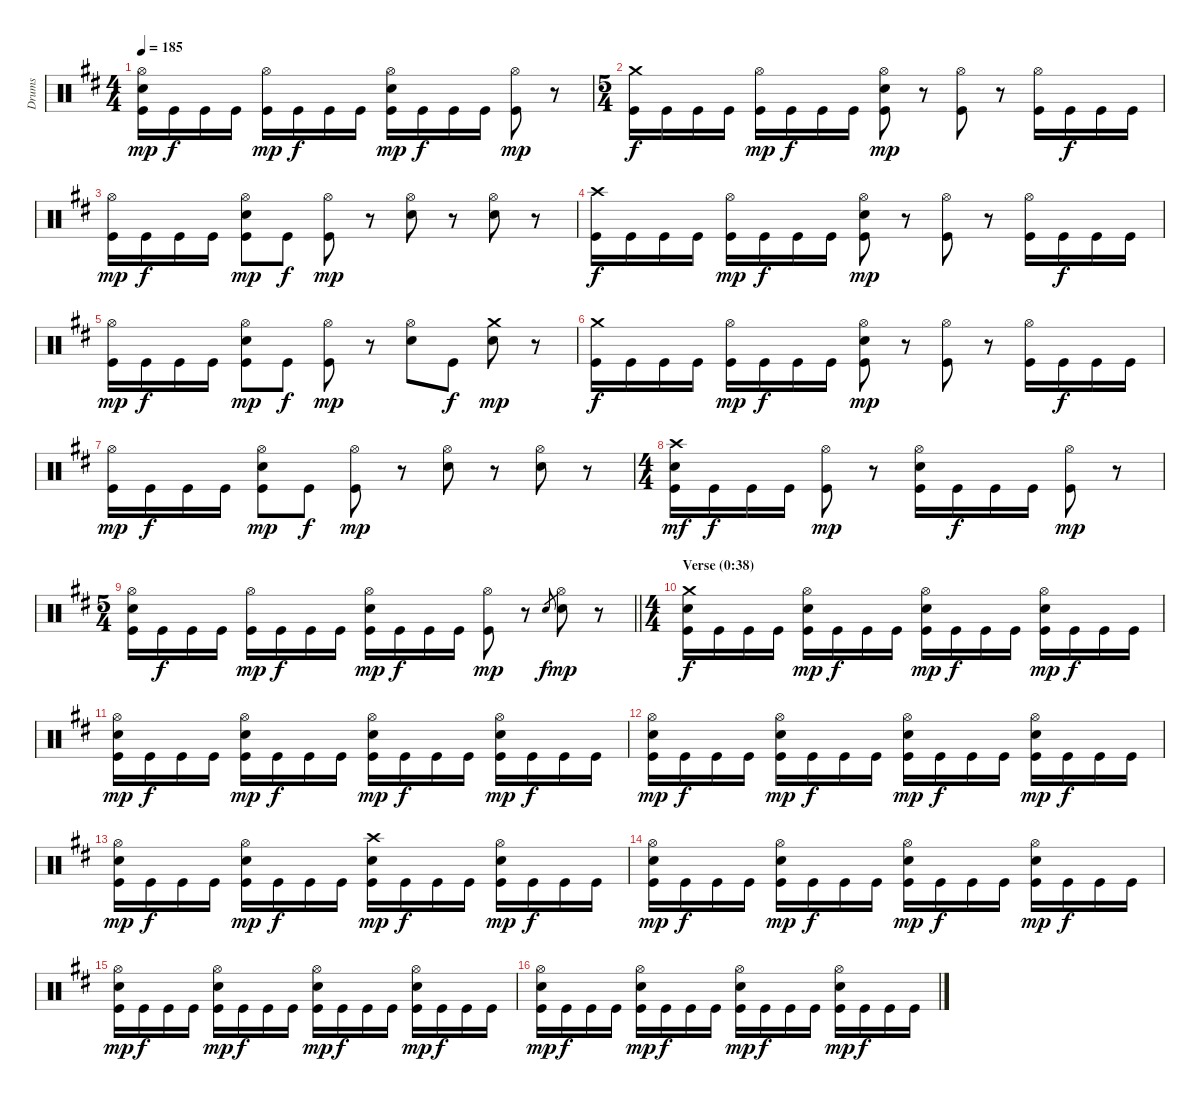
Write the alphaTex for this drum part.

\track ("Drums" "Drums") {instrument percussion}
\staff {score}
\articulation defaults
\ts (4 4)
\tempo 185
\clef neutral
\ks bminor
("Hi-Hat (open)" "Snare (hit) 2" "Kick (hit)").16{dy mp} "Kick (hit)".16{dy f} "Kick (hit)".16 "Kick (hit)".16 ("Hi-Hat (open)" "Kick (hit)").16{dy mp} "Kick (hit)".16{dy f} "Kick (hit)".16 "Kick (hit)".16 ("Hi-Hat (open)" "Snare (hit) 2" "Kick (hit)").16{dy mp} "Kick (hit)".16{dy f} "Kick (hit)".16 "Kick (hit)".16 ("Hi-Hat (open)" "Kick (hit)").8{dy mp} r.8 |
\ts (5 4)
("Crash medium (hit)" "Kick (hit)").16{dy f} "Kick (hit)".16 "Kick (hit)".16 "Kick (hit)".16 ("Hi-Hat (open)" "Kick (hit)").16{dy mp} "Kick (hit)".16{dy f} "Kick (hit)".16 "Kick (hit)".16 ("Hi-Hat (open)" "Snare (hit) 2" "Kick (hit)").8{dy mp} r.8 ("Hi-Hat (open)" "Kick (hit)").8 r.8 ("Hi-Hat (open)" "Kick (hit)").16 "Kick (hit)".16{dy f} "Kick (hit)".16 "Kick (hit)".16 |
("Hi-Hat (open)" "Kick (hit)").16{dy mp} "Kick (hit)".16{dy f} "Kick (hit)".16 "Kick (hit)".16 ("Hi-Hat (open)" "Snare (hit) 2" "Kick (hit)").8{dy mp} "Kick (hit)".8{dy f} ("Hi-Hat (open)" "Kick (hit)").8{dy mp} r.8 ("Hi-Hat (open)" "Snare (hit) 2").8 r.8 ("Hi-Hat (open)" "Snare (hit) 2").8 r.8 |
("Crash high (hit)" "Kick (hit)").16{dy f} "Kick (hit)".16 "Kick (hit)".16 "Kick (hit)".16 ("Hi-Hat (open)" "Kick (hit)").16{dy mp} "Kick (hit)".16{dy f} "Kick (hit)".16 "Kick (hit)".16 ("Hi-Hat (open)" "Snare (hit) 2" "Kick (hit)").8{dy mp} r.8 ("Hi-Hat (open)" "Kick (hit)").8 r.8 ("Hi-Hat (open)" "Kick (hit)").16 "Kick (hit)".16{dy f} "Kick (hit)".16 "Kick (hit)".16 |
("Hi-Hat (open)" "Kick (hit)").16{dy mp} "Kick (hit)".16{dy f} "Kick (hit)".16 "Kick (hit)".16 ("Hi-Hat (open)" "Snare (hit) 2" "Kick (hit)").8{dy mp} "Kick (hit)".8{dy f} ("Hi-Hat (open)" "Kick (hit)").8{dy mp} r.8 ("Hi-Hat (open)" "Snare (hit) 2").8 "Kick (hit)".8{dy f} ("Crash medium (hit)" "Snare (hit) 2").8{dy mp} r.8 |
("Crash medium (hit)" "Kick (hit)").16{dy f} "Kick (hit)".16 "Kick (hit)".16 "Kick (hit)".16 ("Hi-Hat (open)" "Kick (hit)").16{dy mp} "Kick (hit)".16{dy f} "Kick (hit)".16 "Kick (hit)".16 ("Hi-Hat (open)" "Snare (hit) 2" "Kick (hit)").8{dy mp} r.8 ("Hi-Hat (open)" "Kick (hit)").8 r.8 ("Hi-Hat (open)" "Kick (hit)").16 "Kick (hit)".16{dy f} "Kick (hit)".16 "Kick (hit)".16 |
("Hi-Hat (open)" "Kick (hit)").16{dy mp} "Kick (hit)".16{dy f} "Kick (hit)".16 "Kick (hit)".16 ("Hi-Hat (open)" "Snare (hit) 2" "Kick (hit)").8{dy mp} "Kick (hit)".8{dy f} ("Hi-Hat (open)" "Kick (hit)").8{dy mp} r.8 ("Hi-Hat (open)" "Snare (hit) 2").8 r.8 ("Hi-Hat (open)" "Snare (hit) 2").8 r.8 |
\ts (4 4)
("Crash high (hit)" "Snare (hit) 2" "Kick (hit)").16{dy mf} "Kick (hit)".16{dy f} "Kick (hit)".16 "Kick (hit)".16 ("Hi-Hat (open)" "Kick (hit)").8{dy mp} r.8 ("Hi-Hat (open)" "Snare (hit) 2" "Kick (hit)").16 "Kick (hit)".16{dy f} "Kick (hit)".16 "Kick (hit)".16 ("Hi-Hat (open)" "Kick (hit)").8{dy mp} r.8 |
\ts (5 4)
\barLineRight lightlight
("Hi-Hat (open)" "Snare (hit) 2" "Kick (hit)").16 "Kick (hit)".16{dy f} "Kick (hit)".16 "Kick (hit)".16 ("Hi-Hat (open)" "Kick (hit)").16{dy mp} "Kick (hit)".16{dy f} "Kick (hit)".16 "Kick (hit)".16 ("Hi-Hat (open)" "Snare (hit) 2" "Kick (hit)").16{dy mp} "Kick (hit)".16{dy f} "Kick (hit)".16 "Kick (hit)".16 ("Hi-Hat (open)" "Kick (hit)").8{dy mp} r.8 "Snare (hit) 2".8{gr dy f} ("Hi-Hat (open)" "Snare (hit) 2").8{dy mp} r.8 |
\ts (4 4)
\section ("" "Verse (0:38)")
("Crash medium (hit)" "Snare (hit) 2" "Kick (hit)").16{dy f} "Kick (hit)".16 "Kick (hit)".16 "Kick (hit)".16 ("Hi-Hat (open)" "Snare (hit) 2" "Kick (hit)").16{dy mp} "Kick (hit)".16{dy f} "Kick (hit)".16 "Kick (hit)".16 ("Hi-Hat (open)" "Snare (hit) 2" "Kick (hit)").16{dy mp} "Kick (hit)".16{dy f} "Kick (hit)".16 "Kick (hit)".16 ("Hi-Hat (open)" "Snare (hit) 2" "Kick (hit)").16{dy mp} "Kick (hit)".16{dy f} "Kick (hit)".16 "Kick (hit)".16 |
("Hi-Hat (open)" "Snare (hit) 2" "Kick (hit)").16{dy mp} "Kick (hit)".16{dy f} "Kick (hit)".16 "Kick (hit)".16 ("Hi-Hat (open)" "Snare (hit) 2" "Kick (hit)").16{dy mp} "Kick (hit)".16{dy f} "Kick (hit)".16 "Kick (hit)".16 ("Hi-Hat (open)" "Snare (hit) 2" "Kick (hit)").16{dy mp} "Kick (hit)".16{dy f} "Kick (hit)".16 "Kick (hit)".16 ("Hi-Hat (open)" "Snare (hit) 2" "Kick (hit)").16{dy mp} "Kick (hit)".16{dy f} "Kick (hit)".16 "Kick (hit)".16 |
("Hi-Hat (open)" "Snare (hit) 2" "Kick (hit)").16{dy mp} "Kick (hit)".16{dy f} "Kick (hit)".16 "Kick (hit)".16 ("Hi-Hat (open)" "Snare (hit) 2" "Kick (hit)").16{dy mp} "Kick (hit)".16{dy f} "Kick (hit)".16 "Kick (hit)".16 ("Hi-Hat (open)" "Snare (hit) 2" "Kick (hit)").16{dy mp} "Kick (hit)".16{dy f} "Kick (hit)".16 "Kick (hit)".16 ("Hi-Hat (open)" "Snare (hit) 2" "Kick (hit)").16{dy mp} "Kick (hit)".16{dy f} "Kick (hit)".16 "Kick (hit)".16 |
("Hi-Hat (open)" "Snare (hit) 2" "Kick (hit)").16{dy mp} "Kick (hit)".16{dy f} "Kick (hit)".16 "Kick (hit)".16 ("Hi-Hat (open)" "Snare (hit) 2" "Kick (hit)").16{dy mp} "Kick (hit)".16{dy f} "Kick (hit)".16 "Kick (hit)".16 ("Crash high (hit)" "Snare (hit) 2" "Kick (hit)").16{dy mp} "Kick (hit)".16{dy f} "Kick (hit)".16 "Kick (hit)".16 ("Hi-Hat (open)" "Snare (hit) 2" "Kick (hit)").16{dy mp} "Kick (hit)".16{dy f} "Kick (hit)".16 "Kick (hit)".16 |
("Hi-Hat (open)" "Snare (hit) 2" "Kick (hit)").16{dy mp} "Kick (hit)".16{dy f} "Kick (hit)".16 "Kick (hit)".16 ("Hi-Hat (open)" "Snare (hit) 2" "Kick (hit)").16{dy mp} "Kick (hit)".16{dy f} "Kick (hit)".16 "Kick (hit)".16 ("Hi-Hat (open)" "Snare (hit) 2" "Kick (hit)").16{dy mp} "Kick (hit)".16{dy f} "Kick (hit)".16 "Kick (hit)".16 ("Hi-Hat (open)" "Snare (hit) 2" "Kick (hit)").16{dy mp} "Kick (hit)".16{dy f} "Kick (hit)".16 "Kick (hit)".16 |
("Hi-Hat (open)" "Snare (hit) 2" "Kick (hit)").16{dy mp} "Kick (hit)".16{dy f} "Kick (hit)".16 "Kick (hit)".16 ("Hi-Hat (open)" "Snare (hit) 2" "Kick (hit)").16{dy mp} "Kick (hit)".16{dy f} "Kick (hit)".16 "Kick (hit)".16 ("Hi-Hat (open)" "Snare (hit) 2" "Kick (hit)").16{dy mp} "Kick (hit)".16{dy f} "Kick (hit)".16 "Kick (hit)".16 ("Hi-Hat (open)" "Snare (hit) 2" "Kick (hit)").16{dy mp} "Kick (hit)".16{dy f} "Kick (hit)".16 "Kick (hit)".16 |
("Hi-Hat (open)" "Snare (hit) 2" "Kick (hit)").16{dy mp} "Kick (hit)".16{dy f} "Kick (hit)".16 "Kick (hit)".16 ("Hi-Hat (open)" "Snare (hit) 2" "Kick (hit)").16{dy mp} "Kick (hit)".16{dy f} "Kick (hit)".16 "Kick (hit)".16 ("Hi-Hat (open)" "Snare (hit) 2" "Kick (hit)").16{dy mp} "Kick (hit)".16{dy f} "Kick (hit)".16 "Kick (hit)".16 ("Hi-Hat (open)" "Snare (hit) 2" "Kick (hit)").16{dy mp} "Kick (hit)".16{dy f} "Kick (hit)".16 "Kick (hit)".16
